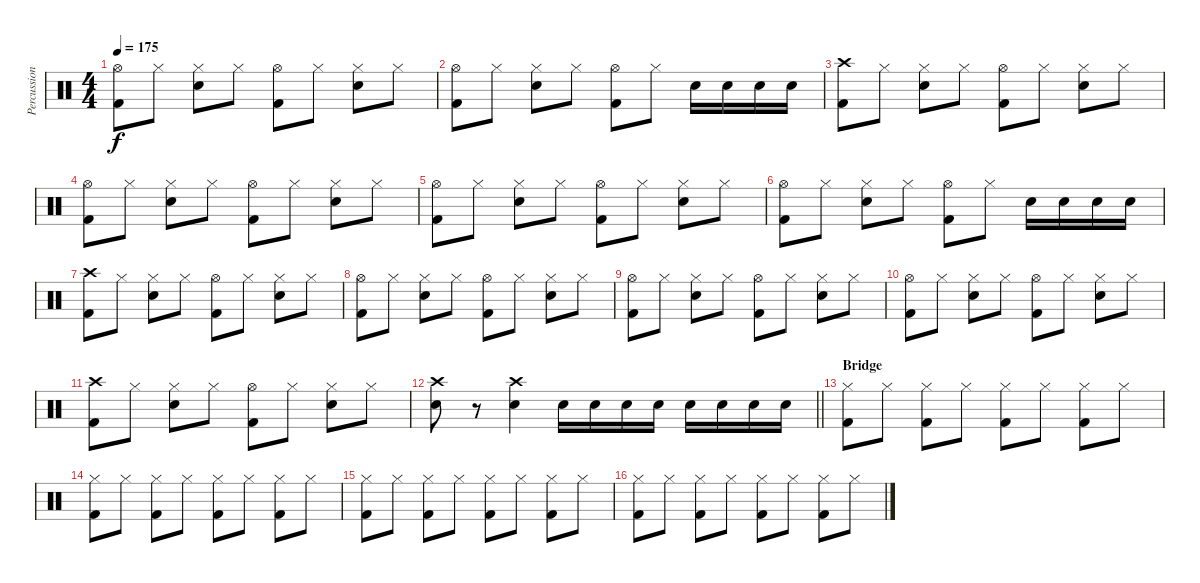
\track ("Percussion" "Percussion") {instrument percussion}
\staff {score}
\articulation defaults
\ts (4 4)
\tempo 175
\clef neutral
\ks c
("Hi-Hat (open)" "Kick (hit) 2").8{dy f} "Hi-Hat (closed)".8 ("Hi-Hat (closed)" "Snare (hit) 2").8 "Hi-Hat (closed)".8 ("Hi-Hat (open)" "Kick (hit) 2").8 "Hi-Hat (closed)".8 ("Hi-Hat (closed)" "Snare (hit) 2").8 "Hi-Hat (closed)".8 |
("Hi-Hat (open)" "Kick (hit) 2").8 "Hi-Hat (closed)".8 ("Hi-Hat (closed)" "Snare (hit) 2").8 "Hi-Hat (closed)".8 ("Hi-Hat (open)" "Kick (hit) 2").8 "Hi-Hat (closed)".8 "Snare (hit) 2".16 "Snare (hit) 2".16 "Snare (hit) 2".16 "Snare (hit) 2".16 |
("Crash high (hit)" "Kick (hit) 2").8 "Hi-Hat (closed)".8 ("Hi-Hat (closed)" "Snare (hit) 2").8 "Hi-Hat (closed)".8 ("Hi-Hat (open)" "Kick (hit) 2").8 "Hi-Hat (closed)".8 ("Hi-Hat (closed)" "Snare (hit) 2").8 "Hi-Hat (closed)".8 |
("Hi-Hat (open)" "Kick (hit) 2").8 "Hi-Hat (closed)".8 ("Hi-Hat (closed)" "Snare (hit) 2").8 "Hi-Hat (closed)".8 ("Hi-Hat (open)" "Kick (hit) 2").8 "Hi-Hat (closed)".8 ("Hi-Hat (closed)" "Snare (hit) 2").8 "Hi-Hat (closed)".8 |
("Hi-Hat (open)" "Kick (hit) 2").8 "Hi-Hat (closed)".8 ("Hi-Hat (closed)" "Snare (hit) 2").8 "Hi-Hat (closed)".8 ("Hi-Hat (open)" "Kick (hit) 2").8 "Hi-Hat (closed)".8 ("Hi-Hat (closed)" "Snare (hit) 2").8 "Hi-Hat (closed)".8 |
("Hi-Hat (open)" "Kick (hit) 2").8 "Hi-Hat (closed)".8 ("Hi-Hat (closed)" "Snare (hit) 2").8 "Hi-Hat (closed)".8 ("Hi-Hat (open)" "Kick (hit) 2").8 "Hi-Hat (closed)".8 "Snare (hit) 2".16 "Snare (hit) 2".16 "Snare (hit) 2".16 "Snare (hit) 2".16 |
("Crash high (hit)" "Kick (hit) 2").8 "Hi-Hat (closed)".8 ("Hi-Hat (closed)" "Snare (hit) 2").8 "Hi-Hat (closed)".8 ("Hi-Hat (open)" "Kick (hit) 2").8 "Hi-Hat (closed)".8 ("Hi-Hat (closed)" "Snare (hit) 2").8 "Hi-Hat (closed)".8 |
("Hi-Hat (open)" "Kick (hit) 2").8 "Hi-Hat (closed)".8 ("Hi-Hat (closed)" "Snare (hit) 2").8 "Hi-Hat (closed)".8 ("Hi-Hat (open)" "Kick (hit) 2").8 "Hi-Hat (closed)".8 ("Hi-Hat (closed)" "Snare (hit) 2").8 "Hi-Hat (closed)".8 |
("Hi-Hat (open)" "Kick (hit) 2").8 "Hi-Hat (closed)".8 ("Hi-Hat (closed)" "Snare (hit) 2").8 "Hi-Hat (closed)".8 ("Hi-Hat (open)" "Kick (hit) 2").8 "Hi-Hat (closed)".8 ("Hi-Hat (closed)" "Snare (hit) 2").8 "Hi-Hat (closed)".8 |
("Hi-Hat (open)" "Kick (hit) 2").8 "Hi-Hat (closed)".8 ("Hi-Hat (closed)" "Snare (hit) 2").8 "Hi-Hat (closed)".8 ("Hi-Hat (open)" "Kick (hit) 2").8 "Hi-Hat (closed)".8 ("Hi-Hat (closed)" "Snare (hit) 2").8 "Hi-Hat (closed)".8 |
("Crash high (hit)" "Kick (hit) 2").8 "Hi-Hat (closed)".8 ("Hi-Hat (closed)" "Snare (hit) 2").8 "Hi-Hat (closed)".8 ("Hi-Hat (open)" "Kick (hit) 2").8 "Hi-Hat (closed)".8 ("Hi-Hat (closed)" "Snare (hit) 2").8 "Hi-Hat (closed)".8 |
\barLineRight lightlight
("Crash high (hit)" "Snare (hit) 2").8 r.8 ("Crash high (hit)" "Snare (hit) 2").4 "Snare (hit) 2".16 "Snare (hit) 2".16 "Snare (hit) 2".16 "Snare (hit) 2".16 "Snare (hit) 2".16 "Snare (hit) 2".16 "Snare (hit) 2".16 "Snare (hit) 2".16 |
\section ("" "Bridge")
("Hi-Hat (closed)" "Kick (hit) 2").8 "Hi-Hat (closed)".8 ("Hi-Hat (closed)" "Kick (hit) 2").8 "Hi-Hat (closed)".8 ("Hi-Hat (closed)" "Kick (hit) 2").8 "Hi-Hat (closed)".8 ("Hi-Hat (closed)" "Kick (hit) 2").8 "Hi-Hat (closed)".8 |
("Hi-Hat (closed)" "Kick (hit) 2").8 "Hi-Hat (closed)".8 ("Hi-Hat (closed)" "Kick (hit) 2").8 "Hi-Hat (closed)".8 ("Hi-Hat (closed)" "Kick (hit) 2").8 "Hi-Hat (closed)".8 ("Hi-Hat (closed)" "Kick (hit) 2").8 "Hi-Hat (closed)".8 |
("Hi-Hat (closed)" "Kick (hit) 2").8 "Hi-Hat (closed)".8 ("Hi-Hat (closed)" "Kick (hit) 2").8 "Hi-Hat (closed)".8 ("Hi-Hat (closed)" "Kick (hit) 2").8 "Hi-Hat (closed)".8 ("Hi-Hat (closed)" "Kick (hit) 2").8 "Hi-Hat (closed)".8 |
("Hi-Hat (closed)" "Kick (hit) 2").8 "Hi-Hat (closed)".8 ("Hi-Hat (closed)" "Kick (hit) 2").8 "Hi-Hat (closed)".8 ("Hi-Hat (closed)" "Kick (hit) 2").8 "Hi-Hat (closed)".8 ("Hi-Hat (closed)" "Kick (hit) 2").8 "Hi-Hat (closed)".8
